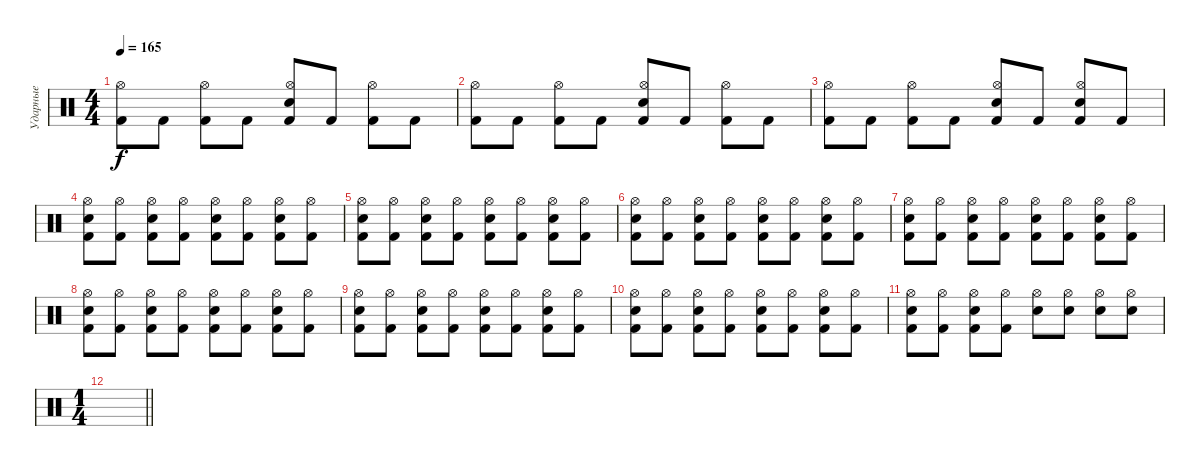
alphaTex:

\track ("Ударные" "Ударные") {instrument percussion}
\staff {score}
\articulation defaults
\ts (4 4)
\tempo 165
\clef neutral
\ks c
("Kick (hit) 2" "Hi-Hat (open)").8{dy f} "Kick (hit) 2".8 ("Kick (hit) 2" "Hi-Hat (open)").8 "Kick (hit) 2".8 ("Kick (hit) 2" "Hi-Hat (open)" "Snare (hit) 2").8 "Kick (hit) 2".8 ("Kick (hit) 2" "Hi-Hat (open)").8 "Kick (hit) 2".8 |
("Kick (hit) 2" "Hi-Hat (open)").8 "Kick (hit) 2".8 ("Kick (hit) 2" "Hi-Hat (open)").8 "Kick (hit) 2".8 ("Kick (hit) 2" "Hi-Hat (open)" "Snare (hit) 2").8 "Kick (hit) 2".8 ("Kick (hit) 2" "Hi-Hat (open)").8 "Kick (hit) 2".8 |
("Kick (hit) 2" "Hi-Hat (open)").8 "Kick (hit) 2".8 ("Kick (hit) 2" "Hi-Hat (open)").8 "Kick (hit) 2".8 ("Kick (hit) 2" "Hi-Hat (open)" "Snare (hit) 2").8 "Kick (hit) 2".8 ("Kick (hit) 2" "Hi-Hat (open)" "Snare (hit) 2").8 "Kick (hit) 2".8 |
("Kick (hit) 2" "Snare (hit) 2" "Hi-Hat (open)").8 ("Kick (hit) 2" "Hi-Hat (open)").8 ("Kick (hit) 2" "Snare (hit) 2" "Hi-Hat (open)").8 ("Kick (hit) 2" "Hi-Hat (open)").8 ("Kick (hit) 2" "Snare (hit) 2" "Hi-Hat (open)").8 ("Kick (hit) 2" "Hi-Hat (open)").8 ("Kick (hit) 2" "Snare (hit) 2" "Hi-Hat (open)").8 ("Kick (hit) 2" "Hi-Hat (open)").8 |
("Kick (hit) 2" "Snare (hit) 2" "Hi-Hat (open)").8 ("Kick (hit) 2" "Hi-Hat (open)").8 ("Kick (hit) 2" "Snare (hit) 2" "Hi-Hat (open)").8 ("Kick (hit) 2" "Hi-Hat (open)").8 ("Kick (hit) 2" "Snare (hit) 2" "Hi-Hat (open)").8 ("Kick (hit) 2" "Hi-Hat (open)").8 ("Kick (hit) 2" "Snare (hit) 2" "Hi-Hat (open)").8 ("Kick (hit) 2" "Hi-Hat (open)").8 |
("Kick (hit) 2" "Snare (hit) 2" "Hi-Hat (open)").8 ("Kick (hit) 2" "Hi-Hat (open)").8 ("Kick (hit) 2" "Snare (hit) 2" "Hi-Hat (open)").8 ("Kick (hit) 2" "Hi-Hat (open)").8 ("Kick (hit) 2" "Snare (hit) 2" "Hi-Hat (open)").8 ("Kick (hit) 2" "Hi-Hat (open)").8 ("Kick (hit) 2" "Snare (hit) 2" "Hi-Hat (open)").8 ("Kick (hit) 2" "Hi-Hat (open)").8 |
("Kick (hit) 2" "Snare (hit) 2" "Hi-Hat (open)").8 ("Kick (hit) 2" "Hi-Hat (open)").8 ("Kick (hit) 2" "Snare (hit) 2" "Hi-Hat (open)").8 ("Kick (hit) 2" "Hi-Hat (open)").8 ("Kick (hit) 2" "Snare (hit) 2" "Hi-Hat (open)").8 ("Kick (hit) 2" "Hi-Hat (open)").8 ("Kick (hit) 2" "Snare (hit) 2" "Hi-Hat (open)").8 ("Kick (hit) 2" "Hi-Hat (open)").8 |
("Kick (hit) 2" "Snare (hit) 2" "Hi-Hat (open)").8 ("Kick (hit) 2" "Hi-Hat (open)").8 ("Kick (hit) 2" "Snare (hit) 2" "Hi-Hat (open)").8 ("Kick (hit) 2" "Hi-Hat (open)").8 ("Kick (hit) 2" "Snare (hit) 2" "Hi-Hat (open)").8 ("Kick (hit) 2" "Hi-Hat (open)").8 ("Kick (hit) 2" "Snare (hit) 2" "Hi-Hat (open)").8 ("Kick (hit) 2" "Hi-Hat (open)").8 |
("Kick (hit) 2" "Snare (hit) 2" "Hi-Hat (open)").8 ("Kick (hit) 2" "Hi-Hat (open)").8 ("Kick (hit) 2" "Snare (hit) 2" "Hi-Hat (open)").8 ("Kick (hit) 2" "Hi-Hat (open)").8 ("Kick (hit) 2" "Snare (hit) 2" "Hi-Hat (open)").8 ("Kick (hit) 2" "Hi-Hat (open)").8 ("Kick (hit) 2" "Snare (hit) 2" "Hi-Hat (open)").8 ("Kick (hit) 2" "Hi-Hat (open)").8 |
("Kick (hit) 2" "Snare (hit) 2" "Hi-Hat (open)").8 ("Kick (hit) 2" "Hi-Hat (open)").8 ("Kick (hit) 2" "Snare (hit) 2" "Hi-Hat (open)").8 ("Kick (hit) 2" "Hi-Hat (open)").8 ("Kick (hit) 2" "Snare (hit) 2" "Hi-Hat (open)").8 ("Kick (hit) 2" "Hi-Hat (open)").8 ("Kick (hit) 2" "Snare (hit) 2" "Hi-Hat (open)").8 ("Kick (hit) 2" "Hi-Hat (open)").8 |
("Kick (hit) 2" "Snare (hit) 2" "Hi-Hat (open)").8 ("Kick (hit) 2" "Hi-Hat (open)").8 ("Kick (hit) 2" "Snare (hit) 2" "Hi-Hat (open)").8 ("Kick (hit) 2" "Hi-Hat (open)").8 ("Snare (hit) 2" "Hi-Hat (open)").8 ("Snare (hit) 2" "Hi-Hat (open)").8 ("Snare (hit) 2" "Hi-Hat (open)").8 ("Snare (hit) 2" "Hi-Hat (open)").8 |
\ts (1 4)
\barLineRight lightlight
